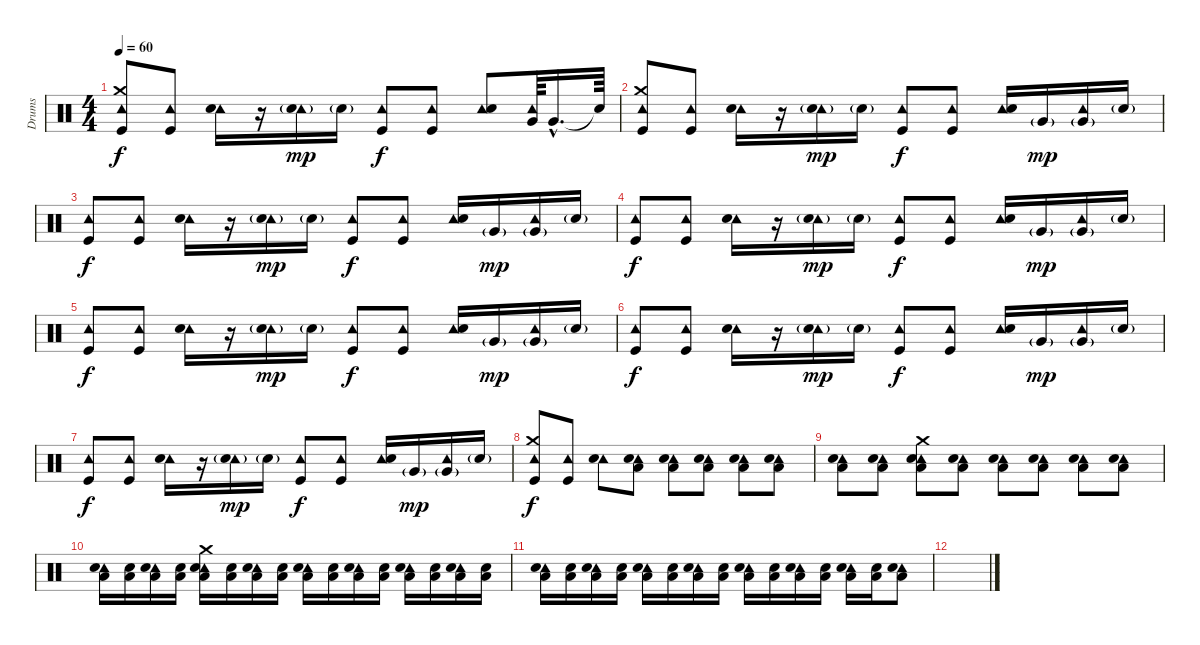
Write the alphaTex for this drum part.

\track ("Drums" "Drums") {instrument percussion}
\staff {score}
\articulation defaults
\ts (4 4)
\tempo 60
\clef neutral
\ks c
("Tambourine (hit)" "Crash medium (hit)" "Kick (hit)").8{dy f} ("Tambourine (hit)" "Kick (hit)").8 ("Tambourine (hit)" "Snare (hit) 2").16 r.16 ("Tambourine (hit)" "Snare (hit) 2"{g}).16{dy mp} "Snare (hit) 2"{g}.16 ("Tambourine (hit)" "Kick (hit)").8{dy f} ("Tambourine (hit)" "Kick (hit)").8 ("Tambourine (hit)" "Snare (hit) 2").8 ("Tambourine (hit)" "Very Low Tom (hit)").64 "Very Low Tom (hit)"{hac}.16{d} "Snare (hit)"{t}.64 |
\section ("" "")
("Tambourine (hit)" "Crash medium (hit)" "Kick (hit)").8 ("Tambourine (hit)" "Kick (hit)").8 ("Tambourine (hit)" "Snare (hit) 2").16 r.16 ("Tambourine (hit)" "Snare (hit) 2"{g}).16{dy mp} "Snare (hit) 2"{g}.16 ("Tambourine (hit)" "Kick (hit)").8{dy f} ("Tambourine (hit)" "Kick (hit)").8 ("Tambourine (hit)" "Snare (hit) 2").16 "Very Low Tom (hit)"{g}.16{dy mp} ("Tambourine (hit)" "Very Low Tom (hit)"{g}).16 "Snare (hit) 2"{g}.16 |
("Tambourine (hit)" "Kick (hit)").8{dy f} ("Tambourine (hit)" "Kick (hit)").8 ("Tambourine (hit)" "Snare (hit) 2").16 r.16 ("Tambourine (hit)" "Snare (hit) 2"{g}).16{dy mp} "Snare (hit) 2"{g}.16 ("Tambourine (hit)" "Kick (hit)").8{dy f} ("Tambourine (hit)" "Kick (hit)").8 ("Tambourine (hit)" "Snare (hit) 2").16 "Very Low Tom (hit)"{g}.16{dy mp} ("Tambourine (hit)" "Very Low Tom (hit)"{g}).16 "Snare (hit) 2"{g}.16 |
("Tambourine (hit)" "Kick (hit)").8{dy f} ("Tambourine (hit)" "Kick (hit)").8 ("Tambourine (hit)" "Snare (hit) 2").16 r.16 ("Tambourine (hit)" "Snare (hit) 2"{g}).16{dy mp} "Snare (hit) 2"{g}.16 ("Tambourine (hit)" "Kick (hit)").8{dy f} ("Tambourine (hit)" "Kick (hit)").8 ("Tambourine (hit)" "Snare (hit) 2").16 "Very Low Tom (hit)"{g}.16{dy mp} ("Tambourine (hit)" "Very Low Tom (hit)"{g}).16 "Snare (hit) 2"{g}.16 |
("Tambourine (hit)" "Kick (hit)").8{dy f} ("Tambourine (hit)" "Kick (hit)").8 ("Tambourine (hit)" "Snare (hit) 2").16 r.16 ("Tambourine (hit)" "Snare (hit) 2"{g}).16{dy mp} "Snare (hit) 2"{g}.16 ("Tambourine (hit)" "Kick (hit)").8{dy f} ("Tambourine (hit)" "Kick (hit)").8 ("Tambourine (hit)" "Snare (hit) 2").16 "Very Low Tom (hit)"{g}.16{dy mp} ("Tambourine (hit)" "Very Low Tom (hit)"{g}).16 "Snare (hit) 2"{g}.16 |
("Tambourine (hit)" "Kick (hit)").8{dy f} ("Tambourine (hit)" "Kick (hit)").8 ("Tambourine (hit)" "Snare (hit) 2").16 r.16 ("Tambourine (hit)" "Snare (hit) 2"{g}).16{dy mp} "Snare (hit) 2"{g}.16 ("Tambourine (hit)" "Kick (hit)").8{dy f} ("Tambourine (hit)" "Kick (hit)").8 ("Tambourine (hit)" "Snare (hit) 2").16 "Very Low Tom (hit)"{g}.16{dy mp} ("Tambourine (hit)" "Very Low Tom (hit)"{g}).16 "Snare (hit) 2"{g}.16 |
("Tambourine (hit)" "Kick (hit)").8{dy f} ("Tambourine (hit)" "Kick (hit)").8 ("Tambourine (hit)" "Snare (hit) 2").16 r.16 ("Tambourine (hit)" "Snare (hit) 2"{g}).16{dy mp} "Snare (hit) 2"{g}.16 ("Tambourine (hit)" "Kick (hit)").8{dy f} ("Tambourine (hit)" "Kick (hit)").8 ("Tambourine (hit)" "Snare (hit) 2").16 "Very Low Tom (hit)"{g}.16{dy mp} ("Tambourine (hit)" "Very Low Tom (hit)"{g}).16 "Snare (hit) 2"{g}.16 |
("Tambourine (hit)" "Crash medium (hit)" "Kick (hit)").8{dy f} ("Tambourine (hit)" "Kick (hit)").8 ("Tambourine (hit)" "Snare (hit) 2").8 ("Tambourine (hit)" "Snare (hit) 2" "Low Tom (hit)").8 ("Tambourine (hit)" "Snare (hit) 2" "Low Tom (hit)").8 ("Tambourine (hit)" "Snare (hit) 2" "Low Tom (hit)").8 ("Tambourine (hit)" "Snare (hit) 2" "Low Tom (hit)").8 ("Tambourine (hit)" "Snare (hit) 2" "Low Tom (hit)").8 |
("Tambourine (hit)" "Snare (hit) 2" "Low Tom (hit)").8 ("Tambourine (hit)" "Snare (hit) 2" "Low Tom (hit)").8 ("Tambourine (hit)" "Crash medium (hit)" "Snare (hit) 2" "Low Tom (hit)").8 ("Tambourine (hit)" "Snare (hit) 2" "Low Tom (hit)").8 ("Tambourine (hit)" "Snare (hit) 2" "Low Tom (hit)").8 ("Tambourine (hit)" "Snare (hit) 2" "Low Tom (hit)").8 ("Tambourine (hit)" "Snare (hit) 2" "Low Tom (hit)").8 ("Tambourine (hit)" "Snare (hit) 2" "Low Tom (hit)").8 |
("Tambourine (hit)" "Snare (hit) 2" "Low Tom (hit)").16 ("Snare (hit) 2" "Low Tom (hit)").16 ("Tambourine (hit)" "Snare (hit) 2" "Low Tom (hit)").16 ("Snare (hit) 2" "Low Tom (hit)").16 ("Tambourine (hit)" "Crash medium (hit)" "Snare (hit) 2" "Low Tom (hit)").16 ("Snare (hit) 2" "Low Tom (hit)").16 ("Tambourine (hit)" "Snare (hit) 2" "Low Tom (hit)").16 ("Snare (hit) 2" "Low Tom (hit)").16 ("Tambourine (hit)" "Snare (hit) 2" "Low Tom (hit)").16 ("Snare (hit) 2" "Low Tom (hit)").16 ("Tambourine (hit)" "Snare (hit) 2" "Low Tom (hit)").16 ("Snare (hit) 2" "Low Tom (hit)").16 ("Tambourine (hit)" "Snare (hit) 2" "Low Tom (hit)").16 ("Snare (hit) 2" "Low Tom (hit)").16 ("Tambourine (hit)" "Snare (hit) 2" "Low Tom (hit)").16 ("Snare (hit) 2" "Low Tom (hit)").16 |
("Tambourine (hit)" "Snare (hit) 2" "Low Tom (hit)").16 ("Snare (hit) 2" "Low Tom (hit)").16 ("Tambourine (hit)" "Snare (hit) 2" "Low Tom (hit)").16 ("Snare (hit) 2" "Low Tom (hit)").16 ("Tambourine (hit)" "Snare (hit) 2" "Low Tom (hit)").16 ("Snare (hit) 2" "Low Tom (hit)").16 ("Tambourine (hit)" "Snare (hit) 2" "Low Tom (hit)").16 ("Snare (hit) 2" "Low Tom (hit)").16 ("Tambourine (hit)" "Snare (hit) 2" "Low Tom (hit)").16 ("Snare (hit) 2" "Low Tom (hit)").16 ("Tambourine (hit)" "Snare (hit) 2" "Low Tom (hit)").16 ("Snare (hit) 2" "Low Tom (hit)").16 ("Tambourine (hit)" "Snare (hit) 2" "Low Tom (hit)").16 ("Snare (hit) 2" "Low Tom (hit)").16 ("Tambourine (hit)" "Snare (hit) 2" "Low Tom (hit)").8 |
\section ("" "")
